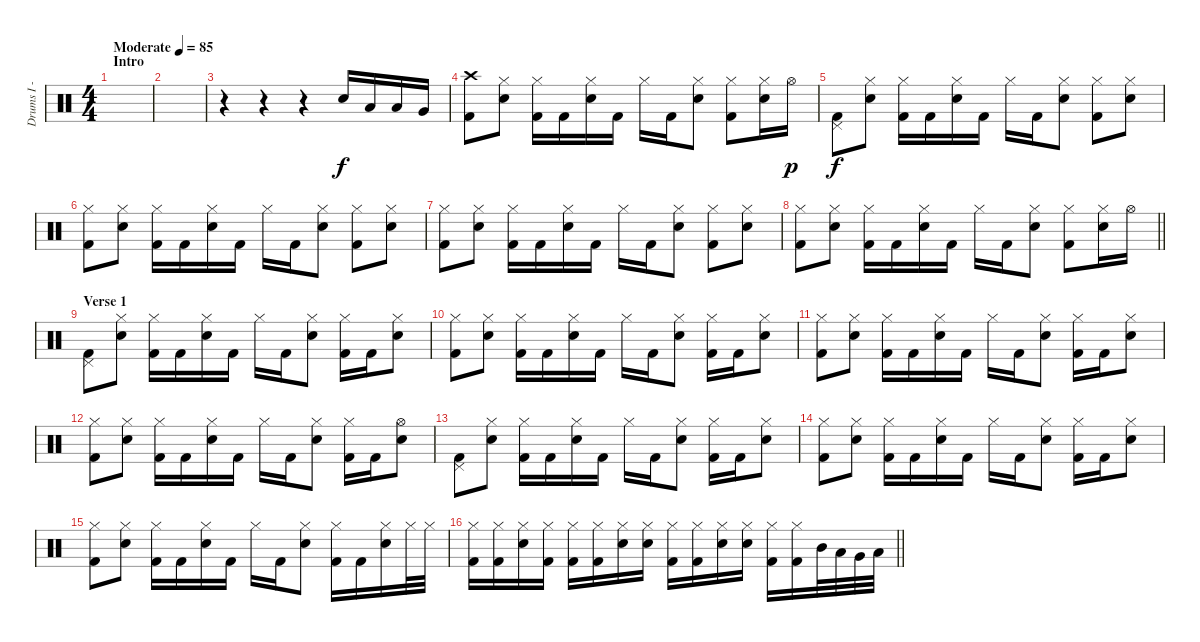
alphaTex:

\track ("Drums I - Adam" "Drums I - ") {instrument percussion}
\staff {score}
\articulation defaults
\ts (4 4)
\section ("" "Intro")
\tempo (85 "Moderate")
\clef neutral
\ks c
|
|
r.4 r.4 r.4 "Snare (hit) 2".16 "Low Floor Tom (hit)".16 "Low Tom (hit)".16 "Very Low Tom (hit)".16 |
("Kick (hit) 2" "Crash high (hit)").8 ("Snare (hit) 2" "Hi-Hat (closed)").8 ("Kick (hit) 2" "Hi-Hat (closed)").16 "Kick (hit) 2".16 ("Snare (hit) 2" "Hi-Hat (closed)").16 "Kick (hit) 2".16 "Hi-Hat (closed)".16 "Kick (hit) 2".16 ("Snare (hit) 2" "Hi-Hat (closed)").8 ("Kick (hit) 2" "Hi-Hat (closed)").8 ("Snare (hit) 2" "Hi-Hat (closed)").16 "Hi-Hat (open)".16{dy p} |
("Kick (hit) 2" "Pedal Hi-Hat (hit)").8{dy f} ("Snare (hit) 2" "Hi-Hat (closed)").8 ("Kick (hit) 2" "Hi-Hat (closed)").16 "Kick (hit) 2".16 ("Snare (hit) 2" "Hi-Hat (closed)").16 "Kick (hit) 2".16 "Hi-Hat (closed)".16 "Kick (hit) 2".16 ("Snare (hit) 2" "Hi-Hat (closed)").8 ("Kick (hit) 2" "Hi-Hat (closed)").8 ("Snare (hit) 2" "Hi-Hat (closed)").8 |
("Kick (hit) 2" "Hi-Hat (closed)").8 ("Snare (hit) 2" "Hi-Hat (closed)").8 ("Kick (hit) 2" "Hi-Hat (closed)").16 "Kick (hit) 2".16 ("Snare (hit) 2" "Hi-Hat (closed)").16 "Kick (hit) 2".16 "Hi-Hat (closed)".16 "Kick (hit) 2".16 ("Snare (hit) 2" "Hi-Hat (closed)").8 ("Kick (hit) 2" "Hi-Hat (closed)").8 ("Snare (hit) 2" "Hi-Hat (closed)").8 |
("Kick (hit) 2" "Hi-Hat (closed)").8 ("Snare (hit) 2" "Hi-Hat (closed)").8 ("Kick (hit) 2" "Hi-Hat (closed)").16 "Kick (hit) 2".16 ("Snare (hit) 2" "Hi-Hat (closed)").16 "Kick (hit) 2".16 "Hi-Hat (closed)".16 "Kick (hit) 2".16 ("Snare (hit) 2" "Hi-Hat (closed)").8 ("Kick (hit) 2" "Hi-Hat (closed)").8 ("Snare (hit) 2" "Hi-Hat (closed)").8 |
\barLineRight lightlight
("Kick (hit) 2" "Hi-Hat (closed)").8 ("Snare (hit) 2" "Hi-Hat (closed)").8 ("Kick (hit) 2" "Hi-Hat (closed)").16 "Kick (hit) 2".16 ("Snare (hit) 2" "Hi-Hat (closed)").16 "Kick (hit) 2".16 "Hi-Hat (closed)".16 "Kick (hit) 2".16 ("Snare (hit) 2" "Hi-Hat (closed)").8 ("Kick (hit) 2" "Hi-Hat (closed)").8 ("Snare (hit) 2" "Hi-Hat (closed)").16 "Hi-Hat (open)".16 |
\section ("" "Verse 1")
("Kick (hit) 2" "Pedal Hi-Hat (hit)").8 ("Snare (hit) 2" "Hi-Hat (closed)").8 ("Kick (hit) 2" "Hi-Hat (closed)").16 "Kick (hit) 2".16 ("Snare (hit) 2" "Hi-Hat (closed)").16 "Kick (hit) 2".16 "Hi-Hat (closed)".16 "Kick (hit) 2".16 ("Snare (hit) 2" "Hi-Hat (closed)").8 ("Kick (hit) 2" "Hi-Hat (closed)").16 "Kick (hit) 2".16 ("Snare (hit) 2" "Hi-Hat (closed)").8 |
("Kick (hit) 2" "Hi-Hat (closed)").8 ("Snare (hit) 2" "Hi-Hat (closed)").8 ("Kick (hit) 2" "Hi-Hat (closed)").16 "Kick (hit) 2".16 ("Snare (hit) 2" "Hi-Hat (closed)").16 "Kick (hit) 2".16 "Hi-Hat (closed)".16 "Kick (hit) 2".16 ("Snare (hit) 2" "Hi-Hat (closed)").8 ("Kick (hit) 2" "Hi-Hat (closed)").16 "Kick (hit) 2".16 ("Snare (hit) 2" "Hi-Hat (closed)").8 |
("Kick (hit) 2" "Hi-Hat (closed)").8 ("Snare (hit) 2" "Hi-Hat (closed)").8 ("Kick (hit) 2" "Hi-Hat (closed)").16 "Kick (hit) 2".16 ("Snare (hit) 2" "Hi-Hat (closed)").16 "Kick (hit) 2".16 "Hi-Hat (closed)".16 "Kick (hit) 2".16 ("Snare (hit) 2" "Hi-Hat (closed)").8 ("Kick (hit) 2" "Hi-Hat (closed)").16 "Kick (hit) 2".16 ("Snare (hit) 2" "Hi-Hat (closed)").8 |
("Kick (hit) 2" "Hi-Hat (closed)").8 ("Snare (hit) 2" "Hi-Hat (closed)").8 ("Kick (hit) 2" "Hi-Hat (closed)").16 "Kick (hit) 2".16 ("Snare (hit) 2" "Hi-Hat (closed)").16 "Kick (hit) 2".16 "Hi-Hat (closed)".16 "Kick (hit) 2".16 ("Snare (hit) 2" "Hi-Hat (closed)").8 ("Kick (hit) 2" "Hi-Hat (closed)").16 "Kick (hit) 2".16 ("Snare (hit) 2" "Hi-Hat (open)").8 |
("Kick (hit) 2" "Pedal Hi-Hat (hit)").8 ("Snare (hit) 2" "Hi-Hat (closed)").8 ("Kick (hit) 2" "Hi-Hat (closed)").16 "Kick (hit) 2".16 ("Snare (hit) 2" "Hi-Hat (closed)").16 "Kick (hit) 2".16 "Hi-Hat (closed)".16 "Kick (hit) 2".16 ("Snare (hit) 2" "Hi-Hat (closed)").8 ("Kick (hit) 2" "Hi-Hat (closed)").16 "Kick (hit) 2".16 ("Snare (hit) 2" "Hi-Hat (closed)").8 |
("Kick (hit) 2" "Hi-Hat (closed)").8 ("Snare (hit) 2" "Hi-Hat (closed)").8 ("Kick (hit) 2" "Hi-Hat (closed)").16 "Kick (hit) 2".16 ("Snare (hit) 2" "Hi-Hat (closed)").16 "Kick (hit) 2".16 "Hi-Hat (closed)".16 "Kick (hit) 2".16 ("Snare (hit) 2" "Hi-Hat (closed)").8 ("Kick (hit) 2" "Hi-Hat (closed)").16 "Kick (hit) 2".16 ("Snare (hit) 2" "Hi-Hat (closed)").8 |
("Kick (hit) 2" "Hi-Hat (closed)").8 ("Snare (hit) 2" "Hi-Hat (closed)").8 ("Kick (hit) 2" "Hi-Hat (closed)").16 "Kick (hit) 2".16 ("Snare (hit) 2" "Hi-Hat (closed)").16 "Kick (hit) 2".16 "Hi-Hat (closed)".16 "Kick (hit) 2".16 ("Snare (hit) 2" "Hi-Hat (closed)").8 ("Kick (hit) 2" "Hi-Hat (closed)").16 "Kick (hit) 2".16 ("Snare (hit) 2" "Hi-Hat (closed)").16 "Hi-Hat (closed)".32 "Hi-Hat (closed)".32 |
\barLineRight lightlight
("Kick (hit) 2" "Hi-Hat (closed)").16 ("Kick (hit) 2" "Hi-Hat (closed)").16 ("Snare (hit) 2" "Hi-Hat (closed)").16 ("Kick (hit) 2" "Hi-Hat (closed)").16 ("Kick (hit) 2" "Hi-Hat (closed)").16 ("Kick (hit) 2" "Hi-Hat (closed)").16 ("Snare (hit) 2" "Hi-Hat (closed)").16 ("Snare (hit) 2" "Hi-Hat (closed)").16 ("Kick (hit) 2" "Hi-Hat (closed)").16 ("Kick (hit) 2" "Hi-Hat (closed)").16 ("Snare (hit) 2" "Hi-Hat (closed)").16 ("Snare (hit) 2" "Hi-Hat (closed)").16 ("Kick (hit) 2" "Hi-Hat (closed)").16 ("Kick (hit) 2" "Hi-Hat (closed)").16 "Mid Tom (hit)".32 "Low Tom (hit)".32 "Very Low Tom (hit)".32 "Low Floor Tom (hit)".32
